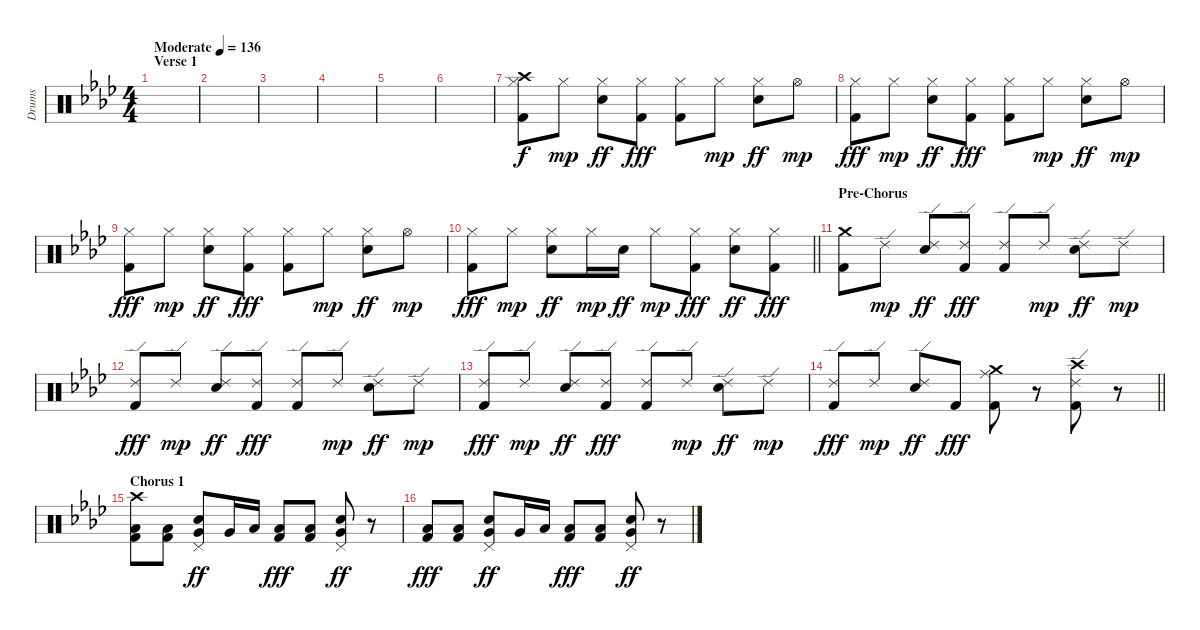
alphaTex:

\track ("Drums" "Drums") {instrument percussion}
\staff {score}
\articulation defaults
\ts (4 4)
\section ("" "Verse 1")
\tempo (136 "Moderate")
\clef neutral
\ks fminor
|
|
|
|
|
|
("Crash high (hit)" "Hi-Hat (closed)" "Kick (hit) 2").8 "Hi-Hat (closed)".8{dy mp} ("Hi-Hat (closed)" "Electric Snare (hit)").8{dy ff} ("Hi-Hat (closed)" "Kick (hit) 2").8{dy fff} ("Hi-Hat (closed)" "Kick (hit) 2").8 "Hi-Hat (closed)".8{dy mp} ("Hi-Hat (closed)" "Electric Snare (hit)").8{dy ff} "Hi-Hat (open)".8{dy mp} |
("Hi-Hat (closed)" "Kick (hit) 2").8{dy fff} "Hi-Hat (closed)".8{dy mp} ("Hi-Hat (closed)" "Electric Snare (hit)").8{dy ff} ("Hi-Hat (closed)" "Kick (hit) 2").8{dy fff} ("Hi-Hat (closed)" "Kick (hit) 2").8 "Hi-Hat (closed)".8{dy mp} ("Hi-Hat (closed)" "Electric Snare (hit)").8{dy ff} "Hi-Hat (open)".8{dy mp} |
("Hi-Hat (closed)" "Kick (hit) 2").8{dy fff} "Hi-Hat (closed)".8{dy mp} ("Hi-Hat (closed)" "Electric Snare (hit)").8{dy ff} ("Hi-Hat (closed)" "Kick (hit) 2").8{dy fff} ("Hi-Hat (closed)" "Kick (hit) 2").8 "Hi-Hat (closed)".8{dy mp} ("Hi-Hat (closed)" "Electric Snare (hit)").8{dy ff} "Hi-Hat (open)".8{dy mp} |
\barLineRight lightlight
("Hi-Hat (closed)" "Kick (hit) 2").8{dy fff} "Hi-Hat (closed)".8{dy mp} ("Hi-Hat (closed)" "Electric Snare (hit)").8{dy ff} "Hi-Hat (closed)".16{dy mp} "Electric Snare (hit)".16{dy ff} "Hi-Hat (closed)".8{dy mp} ("Hi-Hat (closed)" "Kick (hit) 2").8{dy fff} ("Hi-Hat (closed)" "Electric Snare (hit)").8{dy ff} ("Hi-Hat (closed)" "Kick (hit) 2").8{dy fff} |
\section ("" "Pre-Chorus")
("Crash medium (hit)" "Kick (hit) 2").8 "Ride (edge) 2".8{dy mp} ("Ride (edge) 2" "Electric Snare (hit)").8{dy ff} ("Ride (edge) 2" "Kick (hit) 2").8{dy fff} ("Ride (edge) 2" "Kick (hit) 2").8 "Ride (edge) 2".8{dy mp} ("Ride (edge) 2" "Electric Snare (hit)").8{dy ff} "Ride (edge) 2".8{dy mp} |
("Ride (edge) 2" "Kick (hit) 2").8{dy fff} "Ride (edge) 2".8{dy mp} ("Ride (edge) 2" "Electric Snare (hit)").8{dy ff} ("Ride (edge) 2" "Kick (hit) 2").8{dy fff} ("Ride (edge) 2" "Kick (hit) 2").8 "Ride (edge) 2".8{dy mp} ("Ride (edge) 2" "Electric Snare (hit)").8{dy ff} "Ride (edge) 2".8{dy mp} |
("Ride (edge) 2" "Kick (hit) 2").8{dy fff} "Ride (edge) 2".8{dy mp} ("Ride (edge) 2" "Electric Snare (hit)").8{dy ff} ("Ride (edge) 2" "Kick (hit) 2").8{dy fff} ("Ride (edge) 2" "Kick (hit) 2").8 "Ride (edge) 2".8{dy mp} ("Ride (edge) 2" "Electric Snare (hit)").8{dy ff} "Ride (edge) 2".8{dy mp} |
\barLineRight lightlight
("Ride (edge) 2" "Kick (hit) 2").8{dy fff} "Ride (edge) 2".8{dy mp} ("Ride (edge) 2" "Electric Snare (hit)").8{dy ff} "Kick (hit) 2".8{dy fff} ("Crash medium (hit)" "Ride (middle)" "Kick (hit) 2").8 r.8 ("Crash high (hit)" "Ride (edge) 2" "Kick (hit) 2").8 r.8 |
\section ("" "Chorus 1")
("Crash high (hit)" "Low Floor Tom (hit)" "Kick (hit) 2").8 ("Low Floor Tom (hit)" "Kick (hit) 2").8 ("Pedal Hi-Hat (hit)" "Electric Snare (hit)" "Very Low Tom (hit)").8{dy ff} "Very Low Tom (hit)".16 "Low Tom (hit)".16 ("Low Floor Tom (hit)" "Kick (hit) 2").8{dy fff} ("Low Floor Tom (hit)" "Kick (hit) 2").8 ("Pedal Hi-Hat (hit)" "Electric Snare (hit)" "Very Low Tom (hit)").8{dy ff} r.8 |
("Low Floor Tom (hit)" "Kick (hit) 2").8{dy fff} ("Low Floor Tom (hit)" "Kick (hit) 2").8 ("Pedal Hi-Hat (hit)" "Electric Snare (hit)" "Very Low Tom (hit)").8{dy ff} "Very Low Tom (hit)".16 "Low Tom (hit)".16 ("Low Floor Tom (hit)" "Kick (hit) 2").8{dy fff} ("Low Floor Tom (hit)" "Kick (hit) 2").8 ("Pedal Hi-Hat (hit)" "Electric Snare (hit)" "Very Low Tom (hit)").8{dy ff} r.8
